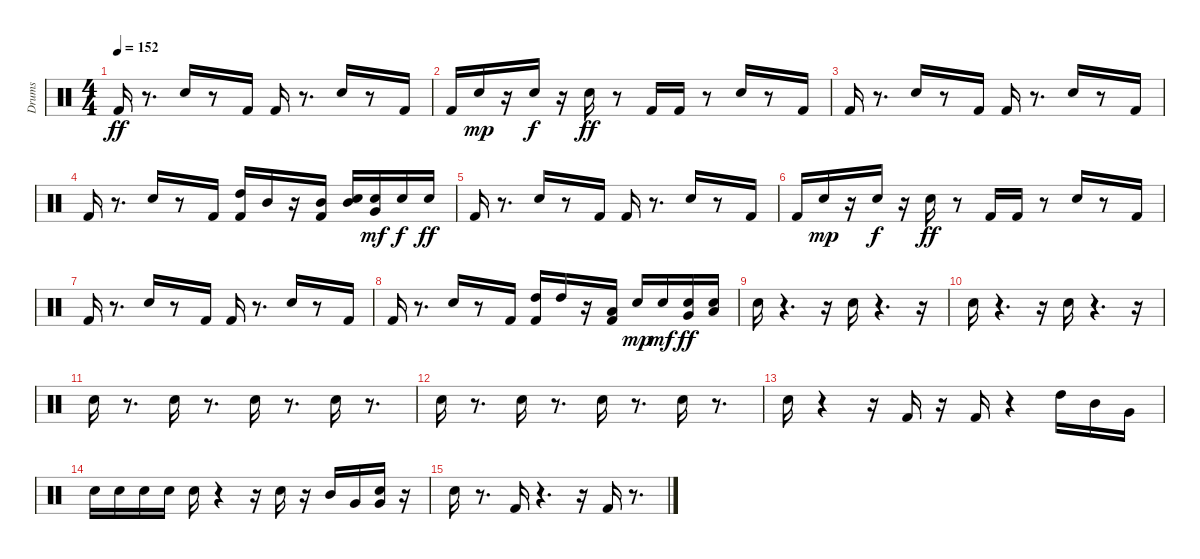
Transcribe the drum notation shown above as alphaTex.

\track ("Drums               " "Drums     ") {instrument percussion}
\staff {score}
\articulation defaults
\ts (4 4)
\tempo 152
\clef neutral
\ks c "Kick (hit) 2".16{dy ff}
r.8{d} "Snare (hit) 2".16 r.8 "Kick (hit) 2".16 "Kick (hit) 2".16 r.8{d} "Snare (hit) 2".16 r.8 "Kick (hit) 2".16 |
"Kick (hit) 2".16 "Snare (hit) 2".16{dy mp} r.16 "Snare (hit) 2".16{dy f} r.16 "Snare (hit) 2".16{dy ff} r.8 "Kick (hit) 2".16 "Kick (hit) 2".16 r.8 "Snare (hit) 2".16 r.8 "Kick (hit) 2".16 |
"Kick (hit) 2".16 r.8{d} "Snare (hit) 2".16 r.8 "Kick (hit) 2".16 "Kick (hit) 2".16 r.8{d} "Snare (hit) 2".16 r.8 "Kick (hit) 2".16 |
"Kick (hit) 2".16 r.8{d} "Snare (hit) 2".16 r.8 "Kick (hit) 2".16 ("Kick (hit) 2" "High Tom (hit)").16 "Mid Tom (hit)".16 r.16 ("Mid Tom (hit)" "Kick (hit) 2").16 ("Snare (hit) 2" "Mid Tom (hit)").16 ("Very Low Tom (hit)" "Snare (hit) 2").16{dy mf} "Snare (hit) 2".16{dy f} "Snare (hit) 2".16{dy ff} |
"Kick (hit) 2".16 r.8{d} "Snare (hit) 2".16 r.8 "Kick (hit) 2".16 "Kick (hit) 2".16 r.8{d} "Snare (hit) 2".16 r.8 "Kick (hit) 2".16 |
"Kick (hit) 2".16 "Snare (hit) 2".16{dy mp} r.16 "Snare (hit) 2".16{dy f} r.16 "Snare (hit) 2".16{dy ff} r.8 "Kick (hit) 2".16 "Kick (hit) 2".16 r.8 "Snare (hit) 2".16 r.8 "Kick (hit) 2".16 |
"Kick (hit) 2".16 r.8{d} "Snare (hit) 2".16 r.8 "Kick (hit) 2".16 "Kick (hit) 2".16 r.8{d} "Snare (hit) 2".16 r.8 "Kick (hit) 2".16 |
"Kick (hit) 2".16 r.8{d} "Snare (hit) 2".16 r.8 "Kick (hit) 2".16 ("High Tom (hit)" "Kick (hit) 2").16 "High Tom (hit)".16 r.16 ("Kick (hit) 2" "Low Tom (hit)").16 "Snare (hit) 2".16{dy mp} "Snare (hit) 2".16{dy mf} ("Very Low Tom (hit)" "Snare (hit) 2").16{dy ff} ("Snare (hit) 2" "Low Floor Tom (hit)").16 |
"Snare (hit) 2".16 r.4{d} r.16 "Snare (hit) 2".16 r.4{d} r.16 |
"Snare (hit) 2".16 r.4{d} r.16 "Snare (hit) 2".16 r.4{d} r.16 |
"Snare (hit) 2".16 r.8{d} "Snare (hit) 2".16 r.8{d} "Snare (hit) 2".16 r.8{d} "Snare (hit) 2".16 r.8{d} |
"Snare (hit) 2".16 r.8{d} "Snare (hit) 2".16 r.8{d} "Snare (hit) 2".16 r.8{d} "Snare (hit) 2".16 r.8{d} |
"Snare (hit) 2".16 r.4 r.16 "Kick (hit) 2".16 r.16 "Kick (hit) 2".16 r.4 "High Tom (hit)".16 "Mid Tom (hit)".16 "Very Low Tom (hit)".16 |
"Snare (hit) 2".16 "Snare (hit) 2".16 "Snare (hit) 2".16 "Snare (hit) 2".16 "Snare (hit) 2".16 r.4 r.16 "Snare (hit) 2".16 r.16 "Mid Tom (hit)".16 "Very Low Tom (hit)".16 ("Snare (hit) 2" "Very Low Tom (hit)").16 r.16 |
"Snare (hit) 2".16 r.8{d} "Kick (hit) 2".16 r.4{d} r.16 "Kick (hit) 2".16 r.8{d}
